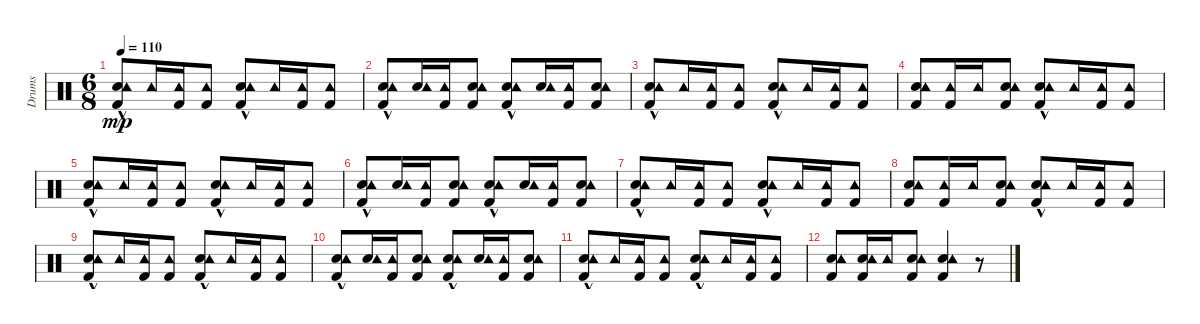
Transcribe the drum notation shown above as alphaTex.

\track ("Drums" "Drums") {instrument percussion}
\staff {score}
\articulation defaults
\ts (6 8)
\tempo 110
\clef neutral
\ks c
("Hand Clap (hit)" "Tambourine (hit)" "Kick (hit) 2"{hac}).8{dy mp} "Tambourine (hit)".16 ("Tambourine (hit)" "Kick (hit) 2").16 ("Tambourine (hit)" "Kick (hit) 2").8 ("Hand Clap (hit)" "Tambourine (hit)" "Kick (hit) 2"{hac}).8 "Tambourine (hit)".16 ("Tambourine (hit)" "Kick (hit) 2").16 ("Tambourine (hit)" "Kick (hit) 2").8 |
("Hand Clap (hit)" "Tambourine (hit)" "Kick (hit) 2"{hac}).8 ("Hand Clap (hit)" "Tambourine (hit)").16 ("Tambourine (hit)" "Kick (hit) 2").16 ("Hand Clap (hit)" "Tambourine (hit)" "Kick (hit) 2").8 ("Hand Clap (hit)" "Tambourine (hit)" "Kick (hit) 2"{hac}).8 ("Hand Clap (hit)" "Tambourine (hit)").16 ("Tambourine (hit)" "Kick (hit) 2").16 ("Hand Clap (hit)" "Tambourine (hit)" "Kick (hit) 2").8 |
("Hand Clap (hit)" "Tambourine (hit)" "Kick (hit) 2"{hac}).8 "Tambourine (hit)".16 ("Tambourine (hit)" "Kick (hit) 2").16 ("Tambourine (hit)" "Kick (hit) 2").8 ("Hand Clap (hit)" "Tambourine (hit)" "Kick (hit) 2"{hac}).8 "Tambourine (hit)".16 ("Tambourine (hit)" "Kick (hit) 2").16 ("Tambourine (hit)" "Kick (hit) 2").8 |
("Hand Clap (hit)" "Tambourine (hit)" "Kick (hit) 2").8 ("Tambourine (hit)" "Kick (hit) 2").16 "Tambourine (hit)".16 ("Hand Clap (hit)" "Tambourine (hit)" "Kick (hit) 2").8 ("Hand Clap (hit)" "Tambourine (hit)" "Kick (hit) 2"{hac}).8 "Tambourine (hit)".16 ("Tambourine (hit)" "Kick (hit) 2").16 ("Tambourine (hit)" "Kick (hit) 2").8 |
("Hand Clap (hit)" "Tambourine (hit)" "Kick (hit) 2"{hac}).8 "Tambourine (hit)".16 ("Tambourine (hit)" "Kick (hit) 2").16 ("Tambourine (hit)" "Kick (hit) 2").8 ("Hand Clap (hit)" "Tambourine (hit)" "Kick (hit) 2"{hac}).8 "Tambourine (hit)".16 ("Tambourine (hit)" "Kick (hit) 2").16 ("Tambourine (hit)" "Kick (hit) 2").8 |
("Hand Clap (hit)" "Tambourine (hit)" "Kick (hit) 2"{hac}).8 ("Hand Clap (hit)" "Tambourine (hit)").16 ("Tambourine (hit)" "Kick (hit) 2").16 ("Hand Clap (hit)" "Tambourine (hit)" "Kick (hit) 2").8 ("Hand Clap (hit)" "Tambourine (hit)" "Kick (hit) 2"{hac}).8 ("Hand Clap (hit)" "Tambourine (hit)").16 ("Tambourine (hit)" "Kick (hit) 2").16 ("Hand Clap (hit)" "Tambourine (hit)" "Kick (hit) 2").8 |
("Hand Clap (hit)" "Tambourine (hit)" "Kick (hit) 2"{hac}).8 "Tambourine (hit)".16 ("Tambourine (hit)" "Kick (hit) 2").16 ("Tambourine (hit)" "Kick (hit) 2").8 ("Hand Clap (hit)" "Tambourine (hit)" "Kick (hit) 2"{hac}).8 "Tambourine (hit)".16 ("Tambourine (hit)" "Kick (hit) 2").16 ("Tambourine (hit)" "Kick (hit) 2").8 |
("Hand Clap (hit)" "Tambourine (hit)" "Kick (hit) 2").8 ("Tambourine (hit)" "Kick (hit) 2").16 "Tambourine (hit)".16 ("Hand Clap (hit)" "Tambourine (hit)" "Kick (hit) 2").8 ("Hand Clap (hit)" "Tambourine (hit)" "Kick (hit) 2"{hac}).8 "Tambourine (hit)".16 ("Tambourine (hit)" "Kick (hit) 2").16 ("Tambourine (hit)" "Kick (hit) 2").8 |
("Hand Clap (hit)" "Tambourine (hit)" "Kick (hit) 2"{hac}).8 "Tambourine (hit)".16 ("Tambourine (hit)" "Kick (hit) 2").16 ("Tambourine (hit)" "Kick (hit) 2").8 ("Hand Clap (hit)" "Tambourine (hit)" "Kick (hit) 2"{hac}).8 "Tambourine (hit)".16 ("Tambourine (hit)" "Kick (hit) 2").16 ("Tambourine (hit)" "Kick (hit) 2").8 |
("Hand Clap (hit)" "Tambourine (hit)" "Kick (hit) 2"{hac}).8 ("Hand Clap (hit)" "Tambourine (hit)").16 ("Tambourine (hit)" "Kick (hit) 2").16 ("Hand Clap (hit)" "Tambourine (hit)" "Kick (hit) 2").8 ("Hand Clap (hit)" "Tambourine (hit)" "Kick (hit) 2"{hac}).8 ("Hand Clap (hit)" "Tambourine (hit)").16 ("Tambourine (hit)" "Kick (hit) 2").16 ("Hand Clap (hit)" "Tambourine (hit)" "Kick (hit) 2").8 |
("Hand Clap (hit)" "Tambourine (hit)" "Kick (hit) 2"{hac}).8 "Tambourine (hit)".16 ("Tambourine (hit)" "Kick (hit) 2").16 ("Tambourine (hit)" "Kick (hit) 2").8 ("Hand Clap (hit)" "Tambourine (hit)" "Kick (hit) 2"{hac}).8 "Tambourine (hit)".16 ("Tambourine (hit)" "Kick (hit) 2").16 ("Tambourine (hit)" "Kick (hit) 2").8 |
("Hand Clap (hit)" "Tambourine (hit)" "Kick (hit) 2").8 ("Hand Clap (hit)" "Tambourine (hit)" "Kick (hit) 2").16 "Tambourine (hit)".16 ("Hand Clap (hit)" "Tambourine (hit)" "Kick (hit) 2").8 ("Hand Clap (hit)" "Tambourine (hit)" "Kick (hit) 2").4 r.8
